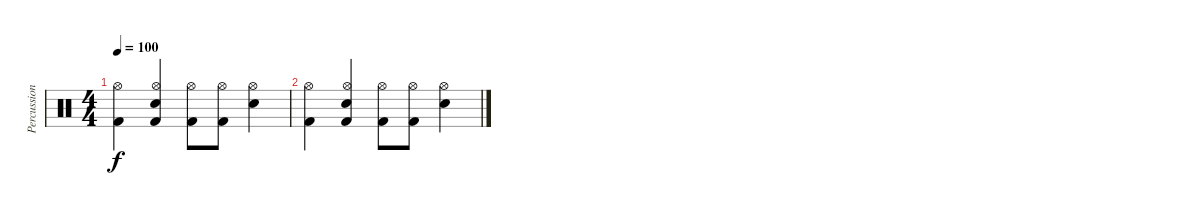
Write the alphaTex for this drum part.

\track ("Percussion" "Percussion") {instrument percussion}
\staff {score}
\articulation defaults
\ts (4 4)
\tempo 100
\clef neutral
\ks c
("Kick (hit) 2" "Hi-Hat (open)").4{dy f} ("Kick (hit) 2" "Snare (hit) 2" "Hi-Hat (open)").4 ("Kick (hit) 2" "Hi-Hat (open)").8 ("Kick (hit) 2" "Hi-Hat (open)").8 ("Snare (hit) 2" "Hi-Hat (open)").4 |
("Kick (hit) 2" "Hi-Hat (open)").4 ("Kick (hit) 2" "Snare (hit) 2" "Hi-Hat (open)").4 ("Kick (hit) 2" "Hi-Hat (open)").8 ("Kick (hit) 2" "Hi-Hat (open)").8 ("Snare (hit) 2" "Hi-Hat (open)").4
